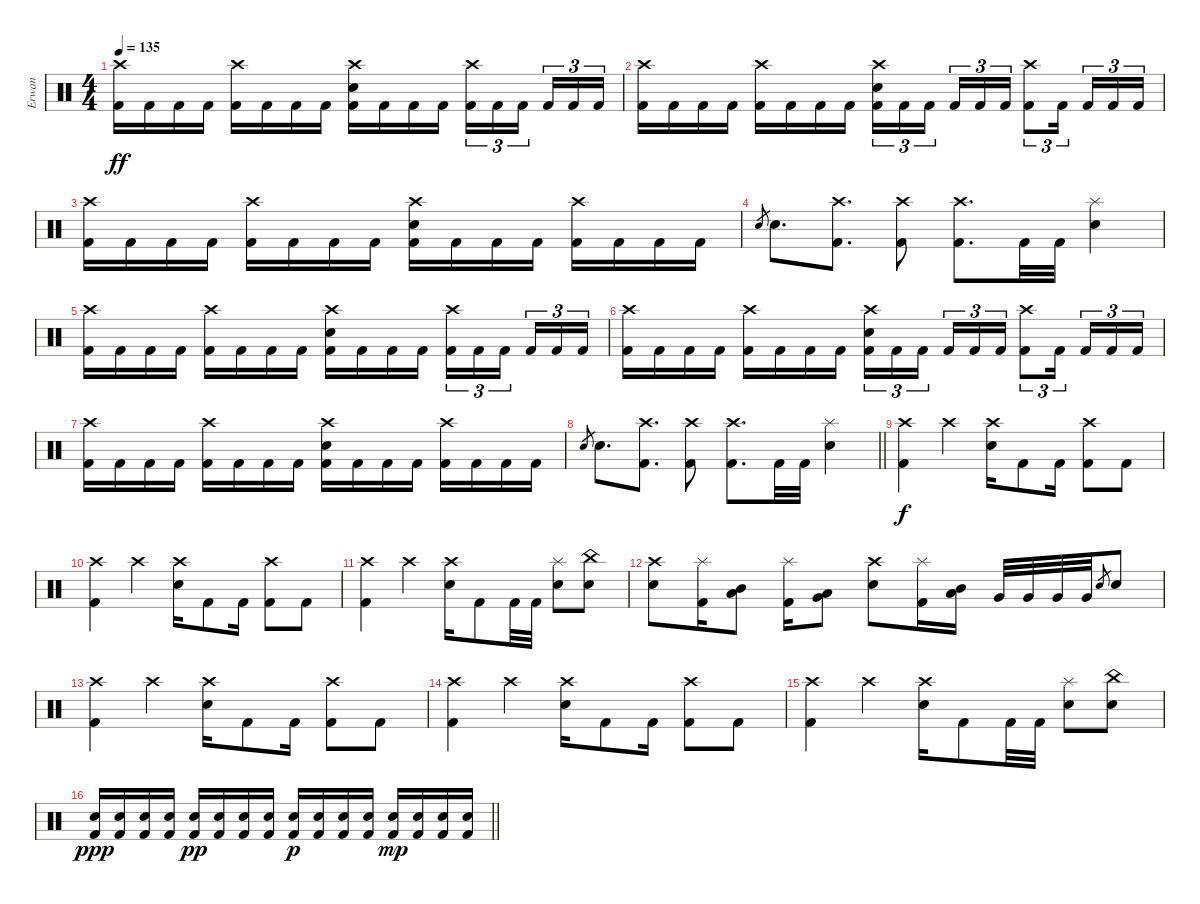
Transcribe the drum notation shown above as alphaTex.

\track ("Erwan" "Erwan") {instrument percussion}
\staff {score}
\articulation defaults
\ts (4 4)
\tempo 135
\clef neutral
\ks c
("Crash high (hit)" "Kick (hit) 2").16{dy ff} "Kick (hit) 2".16 "Kick (hit) 2".16 "Kick (hit) 2".16 ("Crash high (hit)" "Kick (hit) 2").16 "Kick (hit) 2".16 "Kick (hit) 2".16 "Kick (hit) 2".16 ("Crash high (hit)" "Electric Snare (hit)" "Kick (hit) 2").16 "Kick (hit) 2".16 "Kick (hit) 2".16 "Kick (hit) 2".16 ("Crash high (hit)" "Kick (hit) 2").16{tu (3 2)} "Kick (hit) 2".16{tu (3 2)} "Kick (hit) 2".16{tu (3 2) beam splitsecondary} "Kick (hit) 2".16{tu (3 2)} "Kick (hit) 2".16{tu (3 2)} "Kick (hit) 2".16{tu (3 2)} |
("Crash high (hit)" "Kick (hit) 2").16 "Kick (hit) 2".16 "Kick (hit) 2".16 "Kick (hit) 2".16 ("Crash high (hit)" "Kick (hit) 2").16 "Kick (hit) 2".16 "Kick (hit) 2".16 "Kick (hit) 2".16 ("Crash high (hit)" "Electric Snare (hit)" "Kick (hit) 2").16{tu (3 2)} "Kick (hit) 2".16{tu (3 2)} "Kick (hit) 2".16{tu (3 2) beam splitsecondary} "Kick (hit) 2".16{tu (3 2)} "Kick (hit) 2".16{tu (3 2)} "Kick (hit) 2".16{tu (3 2)} ("Crash high (hit)" "Kick (hit) 2").8{tu (3 2)} "Kick (hit) 2".16{tu (3 2) beam splitsecondary} "Kick (hit) 2".16{tu (3 2)} "Kick (hit) 2".16{tu (3 2)} "Kick (hit) 2".16{tu (3 2)} |
("Crash high (hit)" "Kick (hit) 2").16 "Kick (hit) 2".16 "Kick (hit) 2".16 "Kick (hit) 2".16 ("Crash high (hit)" "Kick (hit) 2").16 "Kick (hit) 2".16 "Kick (hit) 2".16 "Kick (hit) 2".16 ("Crash high (hit)" "Electric Snare (hit)" "Kick (hit) 2").16 "Kick (hit) 2".16 "Kick (hit) 2".16 "Kick (hit) 2".16 ("Crash high (hit)" "Kick (hit) 2").16 "Kick (hit) 2".16 "Kick (hit) 2".16 "Kick (hit) 2".16 |
"Electric Snare (hit)".8{gr} "Electric Snare (hit)".8{d} ("Crash high (hit)" "Kick (hit) 2").8{d} ("Crash high (hit)" "Kick (hit) 2").8 ("Crash high (hit)" "Kick (hit) 2").8{d} "Kick (hit) 2".32 "Kick (hit) 2".32 ("Splash (hit)" "Electric Snare (hit)").4 |
("Crash high (hit)" "Kick (hit) 2").16 "Kick (hit) 2".16 "Kick (hit) 2".16 "Kick (hit) 2".16 ("Crash high (hit)" "Kick (hit) 2").16 "Kick (hit) 2".16 "Kick (hit) 2".16 "Kick (hit) 2".16 ("Crash high (hit)" "Electric Snare (hit)" "Kick (hit) 2").16 "Kick (hit) 2".16 "Kick (hit) 2".16 "Kick (hit) 2".16 ("Crash high (hit)" "Kick (hit) 2").16{tu (3 2)} "Kick (hit) 2".16{tu (3 2)} "Kick (hit) 2".16{tu (3 2) beam splitsecondary} "Kick (hit) 2".16{tu (3 2)} "Kick (hit) 2".16{tu (3 2)} "Kick (hit) 2".16{tu (3 2)} |
("Crash high (hit)" "Kick (hit) 2").16 "Kick (hit) 2".16 "Kick (hit) 2".16 "Kick (hit) 2".16 ("Crash high (hit)" "Kick (hit) 2").16 "Kick (hit) 2".16 "Kick (hit) 2".16 "Kick (hit) 2".16 ("Crash high (hit)" "Electric Snare (hit)" "Kick (hit) 2").16{tu (3 2)} "Kick (hit) 2".16{tu (3 2)} "Kick (hit) 2".16{tu (3 2) beam splitsecondary} "Kick (hit) 2".16{tu (3 2)} "Kick (hit) 2".16{tu (3 2)} "Kick (hit) 2".16{tu (3 2)} ("Crash high (hit)" "Kick (hit) 2").8{tu (3 2)} "Kick (hit) 2".16{tu (3 2) beam splitsecondary} "Kick (hit) 2".16{tu (3 2)} "Kick (hit) 2".16{tu (3 2)} "Kick (hit) 2".16{tu (3 2)} |
("Crash high (hit)" "Kick (hit) 2").16 "Kick (hit) 2".16 "Kick (hit) 2".16 "Kick (hit) 2".16 ("Crash high (hit)" "Kick (hit) 2").16 "Kick (hit) 2".16 "Kick (hit) 2".16 "Kick (hit) 2".16 ("Crash high (hit)" "Electric Snare (hit)" "Kick (hit) 2").16 "Kick (hit) 2".16 "Kick (hit) 2".16 "Kick (hit) 2".16 ("Crash high (hit)" "Kick (hit) 2").16 "Kick (hit) 2".16 "Kick (hit) 2".16 "Kick (hit) 2".16 |
\barLineRight lightlight "Electric Snare (hit)".8{gr} "Electric Snare (hit)".8{d}
("Crash high (hit)" "Kick (hit) 2").8{d} ("Crash high (hit)" "Kick (hit) 2").8 ("Crash high (hit)" "Kick (hit) 2").8{d} "Kick (hit) 2".32 "Kick (hit) 2".32 ("Splash (hit)" "Electric Snare (hit)").4 |
("Crash high (hit)" "Kick (hit) 2").4{dy f} "Crash high (hit)".4 ("Crash high (hit)" "Electric Snare (hit)").16 "Kick (hit) 2".8 "Kick (hit) 2".16 ("Crash high (hit)" "Kick (hit) 2").8 "Kick (hit) 2".8 |
("Crash high (hit)" "Kick (hit) 2").4 "Crash high (hit)".4 ("Crash high (hit)" "Electric Snare (hit)").16 "Kick (hit) 2".8 "Kick (hit) 2".16 ("Crash high (hit)" "Kick (hit) 2").8 "Kick (hit) 2".8 |
("Crash high (hit)" "Kick (hit) 2").4 "Crash high (hit)".4 ("Crash high (hit)" "Electric Snare (hit)").16 "Kick (hit) 2".8 "Kick (hit) 2".32 "Kick (hit) 2".32 ("Splash (hit)" "Electric Snare (hit)").8 ("China (hit)" "Electric Snare (hit)").8 |
("Crash high (hit)" "Electric Snare (hit)").8 ("Splash (hit)" "Kick (hit) 2").16 ("Mid Tom (hit)" "Low Tom (hit)").8 ("Splash (hit)" "Kick (hit) 2").16 ("Low Tom (hit)" "Very Low Tom (hit)").8 ("Crash high (hit)" "Electric Snare (hit)").8 ("Splash (hit)" "Kick (hit) 2").16 ("Mid Tom (hit)" "Low Tom (hit)").16 "Very Low Tom (hit)".32 "Very Low Tom (hit)".32 "Very Low Tom (hit)".32 "Very Low Tom (hit)".32 "Electric Snare (hit)".8{gr} "Electric Snare (hit)".8 |
("Crash high (hit)" "Kick (hit) 2").4 "Crash high (hit)".4 ("Crash high (hit)" "Electric Snare (hit)").16 "Kick (hit) 2".8 "Kick (hit) 2".16 ("Crash high (hit)" "Kick (hit) 2").8 "Kick (hit) 2".8 |
("Crash high (hit)" "Kick (hit) 2").4 "Crash high (hit)".4 ("Crash high (hit)" "Electric Snare (hit)").16 "Kick (hit) 2".8 "Kick (hit) 2".16 ("Crash high (hit)" "Kick (hit) 2").8 "Kick (hit) 2".8 |
("Crash high (hit)" "Kick (hit) 2").4 "Crash high (hit)".4 ("Crash high (hit)" "Electric Snare (hit)").16 "Kick (hit) 2".8 "Kick (hit) 2".32 "Kick (hit) 2".32 ("Splash (hit)" "Electric Snare (hit)").8 ("China (hit)" "Electric Snare (hit)").8 |
\barLineRight lightlight
("Electric Snare (hit)" "Kick (hit) 2").16{dy ppp} ("Electric Snare (hit)" "Kick (hit) 2").16 ("Electric Snare (hit)" "Kick (hit) 2").16 ("Electric Snare (hit)" "Kick (hit) 2").16 ("Electric Snare (hit)" "Kick (hit) 2").16{dy pp} ("Electric Snare (hit)" "Kick (hit) 2").16 ("Electric Snare (hit)" "Kick (hit) 2").16 ("Electric Snare (hit)" "Kick (hit) 2").16 ("Electric Snare (hit)" "Kick (hit) 2").16{dy p} ("Electric Snare (hit)" "Kick (hit) 2").16 ("Electric Snare (hit)" "Kick (hit) 2").16 ("Electric Snare (hit)" "Kick (hit) 2").16 ("Electric Snare (hit)" "Kick (hit) 2").16{dy mp} ("Electric Snare (hit)" "Kick (hit) 2").16 ("Electric Snare (hit)" "Kick (hit) 2").16 ("Electric Snare (hit)" "Kick (hit) 2").16
